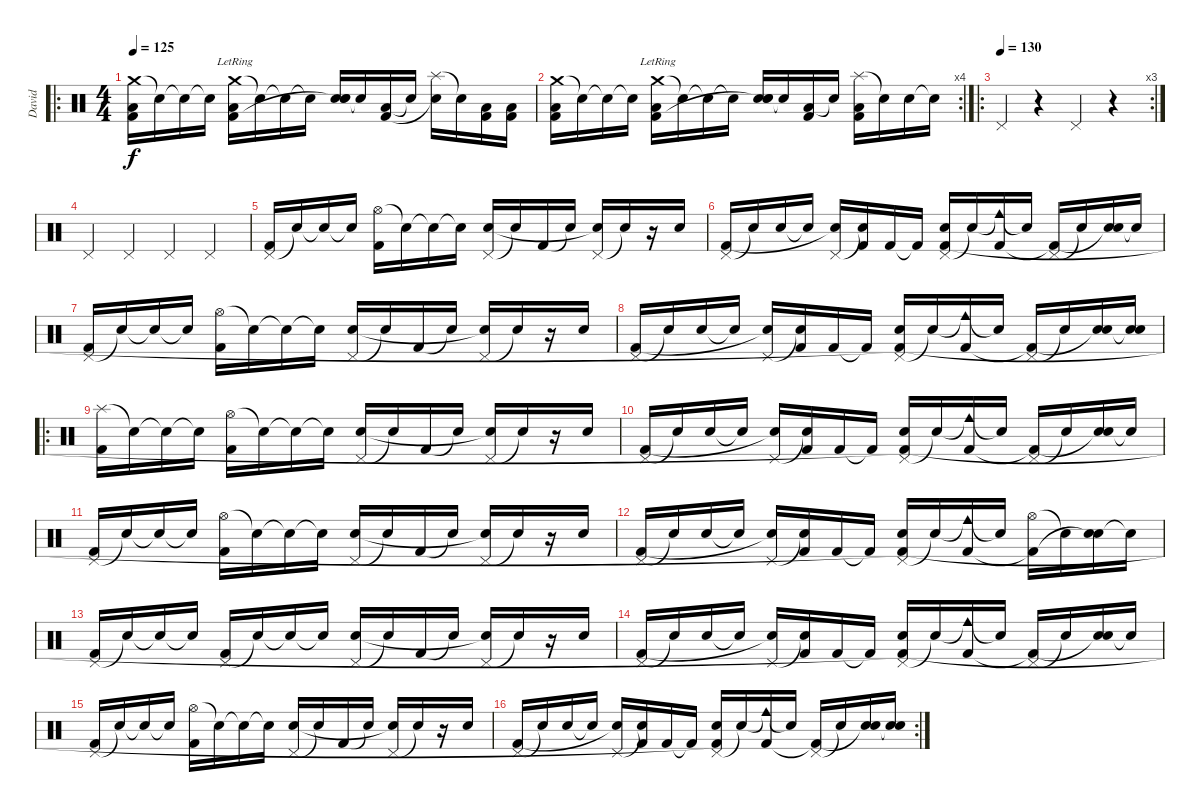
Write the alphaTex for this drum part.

\track ("David" "David") {instrument percussion}
\staff {score}
\articulation defaults
\ro
\ts (4 4)
\tempo 125
\clef neutral
\ks c
("Crash medium (hit)" "Low Floor Tom (hit)" "Kick (hit) 2").16{dy f} "Snare (hit)"{t}.16 "Snare (hit)"{t}.16 "Snare (hit)"{t}.16 ("Crash medium (hit)"{lr} "Low Floor Tom (hit)" "Kick (hit) 2").16 "Snare (hit)"{t}.16 "Snare (hit)"{t}.16 "Snare (hit)"{t}.16 ("Snare (hit) 2" "Electric Snare (hit)" "Snare (hit)"{t}).16 "Snare (hit)"{t}.16 ("Low Floor Tom (hit)" "Kick (hit) 2").16 "Snare (hit)"{t}.16 ("Splash (hit)" "Snare (hit)"{t}).16 "Snare (hit)"{t}.16 ("Low Floor Tom (hit)" "Kick (hit) 2").16 ("Low Floor Tom (hit)" "Kick (hit) 2").16 |
\rc 4
("Crash medium (hit)" "Low Floor Tom (hit)" "Kick (hit) 2").16 "Snare (hit)"{t}.16 "Snare (hit)"{t}.16 "Snare (hit)"{t}.16 ("Crash medium (hit)"{lr} "Low Floor Tom (hit)" "Kick (hit) 2").16 "Snare (hit)"{t}.16 "Snare (hit)"{t}.16 "Snare (hit)"{t}.16 ("Snare (hit) 2" "Electric Snare (hit)" "Snare (hit)"{t}).16 "Snare (hit)"{t}.16 ("Low Floor Tom (hit)" "Kick (hit) 2").16 "Snare (hit)"{t}.16 ("Splash (hit)" "Low Floor Tom (hit)" "Kick (hit) 2").16 "Snare (hit)"{t}.16 "Electric Snare (hit)".16 "Snare (hit)"{t}.16 |
\ro
\rc 3
\tempo (130)
"Pedal Hi-Hat (hit)".4 r.4 "Pedal Hi-Hat (hit)".4 r.4 |
"Pedal Hi-Hat (hit)".4 "Pedal Hi-Hat (hit)".4 "Pedal Hi-Hat (hit)".4 "Pedal Hi-Hat (hit)".4 |
("Pedal Hi-Hat (hit)" "Kick (hit) 2").16 "Snare (hit)"{t}.16 "Snare (hit)"{t}.16 "Snare (hit)"{t}.16 ("Hi-Hat (open)" "Kick (hit) 2").16 "Snare (hit)"{t}.16 "Snare (hit)"{t}.16 "Snare (hit)"{t}.16 ("Pedal Hi-Hat (hit)" "Snare (hit) 2").16 "Snare (hit)"{t}.16 "Kick (hit) 2".16 "Snare (hit)"{t}.16 ("Pedal Hi-Hat (hit)" "Snare (hit)"{t}).16 "Snare (hit)"{t}.16 r.16 "Snare (hit) 2".16 |
("Pedal Hi-Hat (hit)" "Kick (hit) 2").16 "Snare (hit)"{t}.16 "Snare (hit) 2".16 "Snare (hit)"{t}.16 ("Pedal Hi-Hat (hit)" "Snare (hit)"{t}).16 ("Snare (hit)"{t} "Kick (hit) 2").16 "Kick (hit) 2".16 "Kick (hit) 2"{t}.16 ("Pedal Hi-Hat (hit)" "Snare (hit) 2" "Kick (hit) 2").16 "Snare (hit)"{t}.16 ("Cowbell medium (hit)"{t} "Kick (hit) 2").16 "Snare (hit)"{t}.16 ("Pedal Hi-Hat (hit)" "Kick (hit) 2"{t}).16 "Snare (hit)"{t}.16 ("Snare (hit) 2" "Snare (hit)"{t}).16 "Snare (hit)"{t}.16 |
("Pedal Hi-Hat (hit)" "Kick (hit) 2").16 "Snare (hit)"{t}.16 "Snare (hit)"{t}.16 "Snare (hit)"{t}.16 ("Hi-Hat (open)" "Kick (hit) 2").16 "Snare (hit)"{t}.16 "Snare (hit)"{t}.16 "Snare (hit)"{t}.16 ("Pedal Hi-Hat (hit)" "Snare (hit) 2").16 "Snare (hit)"{t}.16 "Kick (hit) 2".16 "Snare (hit)"{t}.16 ("Pedal Hi-Hat (hit)" "Snare (hit)"{t}).16 "Snare (hit)"{t}.16 r.16 "Snare (hit) 2".16 |
("Pedal Hi-Hat (hit)" "Kick (hit) 2").16 "Snare (hit)"{t}.16 "Snare (hit) 2".16 "Snare (hit)"{t}.16 ("Pedal Hi-Hat (hit)" "Snare (hit)"{t}).16 ("Snare (hit)"{t} "Kick (hit) 2").16 "Kick (hit) 2".16 "Kick (hit) 2"{t}.16 ("Pedal Hi-Hat (hit)" "Snare (hit) 2" "Kick (hit) 2"{t}).16 "Snare (hit)"{t}.16 ("Cowbell medium (hit)"{t} "Kick (hit) 2").16 "Snare (hit)"{t}.16 ("Pedal Hi-Hat (hit)" "Kick (hit) 2"{t}).16 "Snare (hit)"{t}.16 ("Snare (hit) 2" "Snare (hit)"{t}).16 ("Snare (hit) 2" "Snare (hit)"{t}).16 |
\ro
("Splash (hit)" "Kick (hit) 2").16 "Snare (hit)"{t}.16 "Snare (hit)"{t}.16 "Snare (hit)"{t}.16 ("Hi-Hat (open)" "Kick (hit) 2").16 "Snare (hit)"{t}.16 "Snare (hit)"{t}.16 "Snare (hit)"{t}.16 ("Pedal Hi-Hat (hit)" "Snare (hit) 2").16 "Snare (hit)"{t}.16 "Kick (hit) 2".16 "Snare (hit)"{t}.16 ("Pedal Hi-Hat (hit)" "Snare (hit)"{t}).16 "Snare (hit)"{t}.16 r.16 "Snare (hit) 2".16 |
("Pedal Hi-Hat (hit)" "Kick (hit) 2").16 "Snare (hit)"{t}.16 "Snare (hit) 2".16 "Snare (hit)"{t}.16 ("Pedal Hi-Hat (hit)" "Snare (hit)"{t}).16 ("Snare (hit)"{t} "Kick (hit) 2").16 "Kick (hit) 2".16 "Kick (hit) 2"{t}.16 ("Pedal Hi-Hat (hit)" "Snare (hit) 2" "Kick (hit) 2"{t}).16 "Snare (hit)"{t}.16 ("Cowbell medium (hit)"{t} "Kick (hit) 2").16 "Snare (hit)"{t}.16 ("Pedal Hi-Hat (hit)" "Kick (hit) 2"{t}).16 "Snare (hit)"{t}.16 ("Snare (hit) 2" "Snare (hit)"{t}).16 "Snare (hit)"{t}.16 |
("Pedal Hi-Hat (hit)" "Kick (hit) 2").16 "Snare (hit)"{t}.16 "Snare (hit)"{t}.16 "Snare (hit)"{t}.16 ("Hi-Hat (open)" "Kick (hit) 2").16 "Snare (hit)"{t}.16 "Snare (hit)"{t}.16 "Snare (hit)"{t}.16 ("Pedal Hi-Hat (hit)" "Snare (hit) 2").16 "Snare (hit)"{t}.16 "Kick (hit) 2".16 "Snare (hit)"{t}.16 ("Pedal Hi-Hat (hit)" "Snare (hit)"{t}).16 "Snare (hit)"{t}.16 r.16 "Snare (hit) 2".16 |
("Pedal Hi-Hat (hit)" "Kick (hit) 2").16 "Snare (hit)"{t}.16 "Snare (hit) 2".16 "Snare (hit)"{t}.16 ("Pedal Hi-Hat (hit)" "Snare (hit)"{t}).16 ("Snare (hit)"{t} "Kick (hit) 2").16 "Kick (hit) 2".16 "Kick (hit) 2"{t}.16 ("Pedal Hi-Hat (hit)" "Snare (hit) 2" "Kick (hit) 2"{t}).16 "Snare (hit)"{t}.16 ("Cowbell medium (hit)"{t} "Kick (hit) 2").16 "Snare (hit)"{t}.16 ("Hi-Hat (open)" "Kick (hit) 2"{t}).16 "Snare (hit)"{t}.16 ("Snare (hit) 2" "Snare (hit)"{t}).16 "Snare (hit)"{t}.16 |
("Pedal Hi-Hat (hit)" "Kick (hit) 2").16 "Snare (hit)"{t}.16 "Snare (hit)"{t}.16 "Snare (hit)"{t}.16 ("Pedal Hi-Hat (hit)" "Kick (hit) 2").16 "Snare (hit)"{t}.16 "Snare (hit)"{t}.16 "Snare (hit)"{t}.16 ("Pedal Hi-Hat (hit)" "Snare (hit) 2").16 "Snare (hit)"{t}.16 "Kick (hit) 2".16 "Snare (hit)"{t}.16 ("Pedal Hi-Hat (hit)" "Snare (hit)"{t}).16 "Snare (hit)"{t}.16 r.16 "Snare (hit) 2".16 |
("Pedal Hi-Hat (hit)" "Kick (hit) 2").16 "Snare (hit)"{t}.16 "Snare (hit) 2".16 "Snare (hit)"{t}.16 ("Pedal Hi-Hat (hit)" "Snare (hit)"{t}).16 ("Snare (hit)"{t} "Kick (hit) 2").16 "Kick (hit) 2".16 "Kick (hit) 2"{t}.16 ("Pedal Hi-Hat (hit)" "Snare (hit) 2" "Kick (hit) 2"{t}).16 "Snare (hit)"{t}.16 ("Cowbell medium (hit)"{t} "Kick (hit) 2").16 "Snare (hit)"{t}.16 ("Pedal Hi-Hat (hit)" "Kick (hit) 2"{t}).16 "Snare (hit)"{t}.16 ("Snare (hit) 2" "Snare (hit)"{t}).16 "Snare (hit)"{t}.16 |
("Pedal Hi-Hat (hit)" "Kick (hit) 2").16 "Snare (hit)"{t}.16 "Snare (hit)"{t}.16 "Snare (hit)"{t}.16 ("Hi-Hat (open)" "Kick (hit) 2").16 "Snare (hit)"{t}.16 "Snare (hit)"{t}.16 "Snare (hit)"{t}.16 ("Pedal Hi-Hat (hit)" "Snare (hit) 2").16 "Snare (hit)"{t}.16 "Kick (hit) 2".16 "Snare (hit)"{t}.16 ("Pedal Hi-Hat (hit)" "Snare (hit)"{t}).16 "Snare (hit)"{t}.16 r.16 "Snare (hit) 2".16 |
\rc 2
("Pedal Hi-Hat (hit)" "Kick (hit) 2").16 "Snare (hit)"{t}.16 "Snare (hit) 2".16 "Snare (hit)"{t}.16 ("Pedal Hi-Hat (hit)" "Snare (hit)"{t}).16 ("Snare (hit)"{t} "Kick (hit) 2").16 "Kick (hit) 2".16 "Kick (hit) 2"{t}.16 ("Pedal Hi-Hat (hit)" "Snare (hit) 2" "Kick (hit) 2"{t}).16 "Snare (hit)"{t}.16 ("Cowbell medium (hit)"{t} "Kick (hit) 2").16 "Snare (hit)"{t}.16 ("Pedal Hi-Hat (hit)" "Kick (hit) 2"{t}).16 "Snare (hit)"{t}.16 ("Snare (hit) 2" "Snare (hit)"{t}).16 ("Snare (hit) 2" "Snare (hit)"{t}).16
